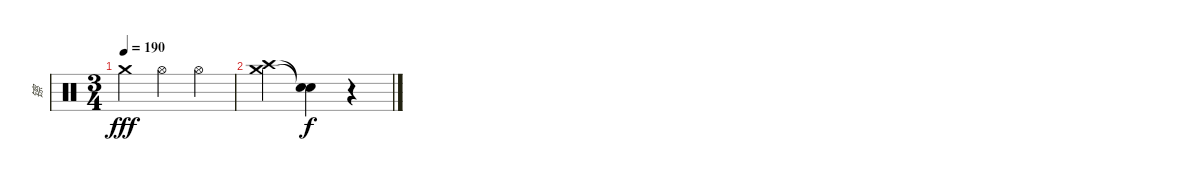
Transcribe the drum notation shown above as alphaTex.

\track ("镲" "镲") {instrument percussion}
\staff {score}
\articulation defaults
\ts (3 4)
\tempo 190
\clef neutral
\ks c "Crash medium (hit)".4{dy fff} "Hi-Hat (open)".4 "Hi-Hat (open)".4
|
("Crash high (hit)" "Crash medium (hit)").4 ("Snare (hit)"{t} "Snare (hit)"{t}).4{dy f} r.4
